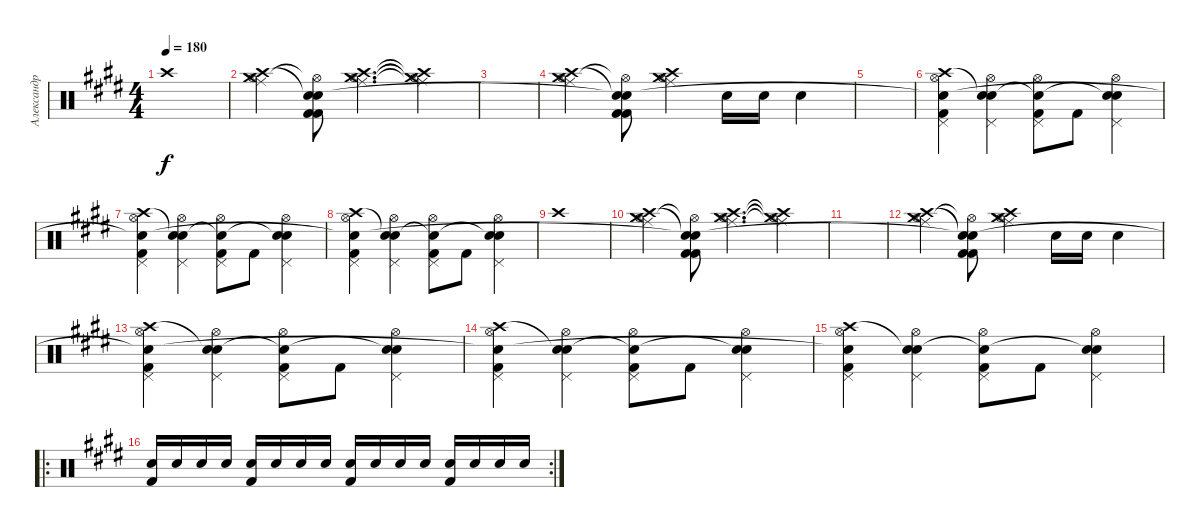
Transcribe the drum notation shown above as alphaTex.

\track ("Александр Новиков" "Александр ") {instrument percussion}
\staff {score}
\articulation defaults
\ts (4 4)
\tempo 180
\clef neutral
\ks c#minor "Crash high (hit)".1{dy f}
|
("Hi-Hat (open)" "Ride (middle)" "Crash medium (hit)" "Crash high (hit)").4 ("Hi-Hat (open)"{t} "Kick (hit) 2" "Kick (hit) 2" "Snare (hit)"{t} "Snare (hit)").8 ("Hi-Hat (open)" "Ride (middle)" "Crash medium (hit)" "Crash high (hit)").4{d} ("Hi-Hat (open)"{t} "Ride (middle)"{t} "Crash medium (hit)"{t} "Crash high (hit)"{t}).4 |
|
("Hi-Hat (open)" "Ride (middle)" "Crash medium (hit)" "Crash high (hit)").4 ("Hi-Hat (open)"{t} "Kick (hit) 2" "Kick (hit) 2" "Snare (hit)"{t} "Snare (hit)"{t}).8 ("Hi-Hat (open)" "Ride (middle)" "Crash medium (hit)" "Crash high (hit)").4 "Electric Snare (hit)".16 "Electric Snare (hit)".16 "Electric Snare (hit)".4 |
|
("Hi-Hat (open)" "Kick (hit) 2" "Pedal Hi-Hat (hit)" "Crash high (hit)" "Snare (hit)"{t}).4 ("Hi-Hat (open)" "Electric Snare (hit)" "Pedal Hi-Hat (hit)" "Snare (hit)"{t}).4 ("Hi-Hat (open)" "Kick (hit) 2" "Pedal Hi-Hat (hit)" "Snare (hit)"{t}).8 "Kick (hit) 2".8 ("Hi-Hat (open)" "Electric Snare (hit)" "Pedal Hi-Hat (hit)" "Snare (hit)"{t}).4 |
("Hi-Hat (open)" "Kick (hit) 2" "Pedal Hi-Hat (hit)" "Crash high (hit)" "Snare (hit)"{t}).4 ("Hi-Hat (open)" "Electric Snare (hit)" "Pedal Hi-Hat (hit)" "Snare (hit)"{t}).4 ("Hi-Hat (open)" "Kick (hit) 2" "Pedal Hi-Hat (hit)" "Snare (hit)"{t}).8 "Kick (hit) 2".8 ("Hi-Hat (open)" "Electric Snare (hit)" "Pedal Hi-Hat (hit)" "Snare (hit)"{t}).4 |
("Hi-Hat (open)" "Kick (hit) 2" "Pedal Hi-Hat (hit)" "Crash high (hit)" "Snare (hit)"{t}).4 ("Hi-Hat (open)" "Electric Snare (hit)" "Pedal Hi-Hat (hit)" "Snare (hit)"{t}).4 ("Hi-Hat (open)" "Kick (hit) 2" "Pedal Hi-Hat (hit)" "Snare (hit)"{t}).8 "Kick (hit) 2".8 ("Hi-Hat (open)" "Electric Snare (hit)" "Pedal Hi-Hat (hit)" "Snare (hit)"{t}).4 |
"Crash high (hit)".1 |
("Hi-Hat (open)" "Ride (middle)" "Crash medium (hit)" "Crash high (hit)").4 ("Hi-Hat (open)"{t} "Kick (hit) 2" "Kick (hit) 2" "Snare (hit)"{t} "Snare (hit)"{t}).8 ("Hi-Hat (open)" "Ride (middle)" "Crash medium (hit)" "Crash high (hit)").4{d} ("Hi-Hat (open)"{t} "Ride (middle)"{t} "Crash medium (hit)"{t} "Crash high (hit)"{t}).4 |
|
("Hi-Hat (open)" "Ride (middle)" "Crash medium (hit)" "Crash high (hit)").4 ("Hi-Hat (open)"{t} "Kick (hit) 2" "Kick (hit) 2" "Snare (hit)"{t} "Snare (hit)"{t}).8 ("Hi-Hat (open)" "Ride (middle)" "Crash medium (hit)" "Crash high (hit)").4 "Electric Snare (hit)".16 "Electric Snare (hit)".16 "Electric Snare (hit)".4 |
("Hi-Hat (open)" "Kick (hit) 2" "Pedal Hi-Hat (hit)" "Crash high (hit)" "Snare (hit)"{t}).4 ("Hi-Hat (open)" "Electric Snare (hit)" "Pedal Hi-Hat (hit)" "Snare (hit)"{t}).4 ("Hi-Hat (open)" "Kick (hit) 2" "Pedal Hi-Hat (hit)" "Snare (hit)"{t}).8 "Kick (hit) 2".8 ("Hi-Hat (open)" "Electric Snare (hit)" "Pedal Hi-Hat (hit)" "Snare (hit)"{t}).4 |
("Hi-Hat (open)" "Kick (hit) 2" "Pedal Hi-Hat (hit)" "Crash high (hit)" "Snare (hit)"{t}).4 ("Hi-Hat (open)" "Electric Snare (hit)" "Pedal Hi-Hat (hit)" "Snare (hit)"{t}).4 ("Hi-Hat (open)" "Kick (hit) 2" "Pedal Hi-Hat (hit)" "Snare (hit)"{t}).8 "Kick (hit) 2".8 ("Hi-Hat (open)" "Electric Snare (hit)" "Pedal Hi-Hat (hit)" "Snare (hit)"{t}).4 |
("Hi-Hat (open)" "Kick (hit) 2" "Pedal Hi-Hat (hit)" "Crash high (hit)" "Snare (hit)"{t}).4 ("Hi-Hat (open)" "Electric Snare (hit)" "Pedal Hi-Hat (hit)" "Snare (hit)"{t}).4 ("Hi-Hat (open)" "Kick (hit) 2" "Pedal Hi-Hat (hit)" "Snare (hit)"{t}).8 "Kick (hit) 2".8 ("Hi-Hat (open)" "Electric Snare (hit)" "Pedal Hi-Hat (hit)" "Snare (hit)"{t}).4 |
\ro
\rc 2
("Electric Snare (hit)" "Kick (hit) 2").16 "Electric Snare (hit)".16 "Electric Snare (hit)".16 "Electric Snare (hit)".16 ("Electric Snare (hit)" "Kick (hit) 2").16 "Electric Snare (hit)".16 "Electric Snare (hit)".16 "Electric Snare (hit)".16 ("Electric Snare (hit)" "Kick (hit) 2").16 "Electric Snare (hit)".16 "Electric Snare (hit)".16 "Electric Snare (hit)".16 ("Electric Snare (hit)" "Kick (hit) 2").16 "Electric Snare (hit)".16 "Electric Snare (hit)".16 "Electric Snare (hit)".16
